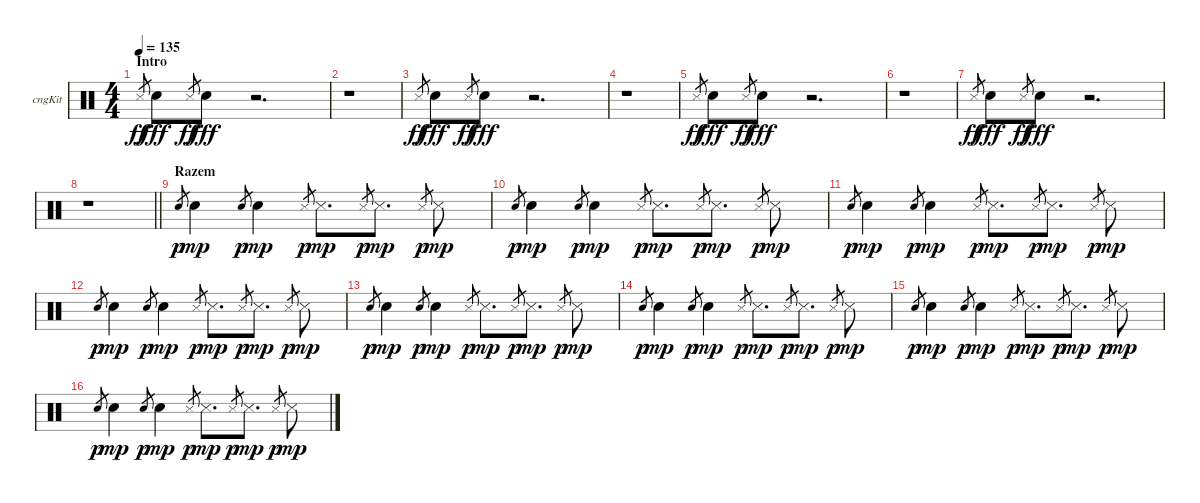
\bracketExtendMode groupsimilarinstruments
\firstSystemTrackNameOrientation horizontal
\otherSystemsTrackNameOrientation horizontal
\track ("Congas" "cngKit") {instrument percussion}
\staff {score}
\articulation defaults
\ts (4 4)
\beaming (8 2 2 2 2)
\section ("" "Intro")
\tempo 135
\clef neutral
\ks c "Snare (side stick) 3".8{gr dy ff} "Snare (hit) 2".8{dy fff} "Snare (side stick) 3".8{gr dy ff} "Snare (hit) 2".8{dy fff}
r.2{d} |
r.1 |
"Snare (side stick) 3".8{gr dy ff} "Snare (hit) 2".8{dy fff} "Snare (side stick) 3".8{gr dy ff} "Snare (hit) 2".8{dy fff} r.2{d} |
r.1 |
"Snare (side stick) 3".8{gr dy ff} "Snare (hit) 2".8{dy fff} "Snare (side stick) 3".8{gr dy ff} "Snare (hit) 2".8{dy fff} r.2{d} |
r.1 |
"Snare (side stick) 3".8{gr dy ff} "Snare (hit) 2".8{dy fff} "Snare (side stick) 3".8{gr dy ff} "Snare (hit) 2".8{dy fff} r.2{d} |
\barLineRight lightlight
r.1 |
\section ("" "Razem")
"Snare (hit) 2".8{gr dy p} "Snare (hit) 2".4{dy mp} "Snare (hit) 2".8{gr dy p} "Snare (hit) 2".4{dy mp} "Snare (side stick) 3".8{gr dy p} "Snare (side stick) 3".8{d dy mp} "Snare (side stick) 3".8{gr dy p} "Snare (side stick) 3".8{d dy mp} "Snare (side stick) 3".8{gr dy p} "Snare (side stick) 3".8{dy mp} |
"Snare (hit) 2".8{gr dy p} "Snare (hit) 2".4{dy mp} "Snare (hit) 2".8{gr dy p} "Snare (hit) 2".4{dy mp} "Snare (side stick) 3".8{gr dy p} "Snare (side stick) 3".8{d dy mp} "Snare (side stick) 3".8{gr dy p} "Snare (side stick) 3".8{d dy mp} "Snare (side stick) 3".8{gr dy p} "Snare (side stick) 3".8{dy mp} |
"Snare (hit) 2".8{gr dy p} "Snare (hit) 2".4{dy mp} "Snare (hit) 2".8{gr dy p} "Snare (hit) 2".4{dy mp} "Snare (side stick) 3".8{gr dy p} "Snare (side stick) 3".8{d dy mp} "Snare (side stick) 3".8{gr dy p} "Snare (side stick) 3".8{d dy mp} "Snare (side stick) 3".8{gr dy p} "Snare (side stick) 3".8{dy mp} |
"Snare (hit) 2".8{gr dy p} "Snare (hit) 2".4{dy mp} "Snare (hit) 2".8{gr dy p} "Snare (hit) 2".4{dy mp} "Snare (side stick) 3".8{gr dy p} "Snare (side stick) 3".8{d dy mp} "Snare (side stick) 3".8{gr dy p} "Snare (side stick) 3".8{d dy mp} "Snare (side stick) 3".8{gr dy p} "Snare (side stick) 3".8{dy mp} |
"Snare (hit) 2".8{gr dy p} "Snare (hit) 2".4{dy mp} "Snare (hit) 2".8{gr dy p} "Snare (hit) 2".4{dy mp} "Snare (side stick) 3".8{gr dy p} "Snare (side stick) 3".8{d dy mp} "Snare (side stick) 3".8{gr dy p} "Snare (side stick) 3".8{d dy mp} "Snare (side stick) 3".8{gr dy p} "Snare (side stick) 3".8{dy mp} |
"Snare (hit) 2".8{gr dy p} "Snare (hit) 2".4{dy mp} "Snare (hit) 2".8{gr dy p} "Snare (hit) 2".4{dy mp} "Snare (side stick) 3".8{gr dy p} "Snare (side stick) 3".8{d dy mp} "Snare (side stick) 3".8{gr dy p} "Snare (side stick) 3".8{d dy mp} "Snare (side stick) 3".8{gr dy p} "Snare (side stick) 3".8{dy mp} |
"Snare (hit) 2".8{gr dy p} "Snare (hit) 2".4{dy mp} "Snare (hit) 2".8{gr dy p} "Snare (hit) 2".4{dy mp} "Snare (side stick) 3".8{gr dy p} "Snare (side stick) 3".8{d dy mp} "Snare (side stick) 3".8{gr dy p} "Snare (side stick) 3".8{d dy mp} "Snare (side stick) 3".8{gr dy p} "Snare (side stick) 3".8{dy mp} |
"Snare (hit) 2".8{gr dy p} "Snare (hit) 2".4{dy mp} "Snare (hit) 2".8{gr dy p} "Snare (hit) 2".4{dy mp} "Snare (side stick) 3".8{gr dy p} "Snare (side stick) 3".8{d dy mp} "Snare (side stick) 3".8{gr dy p} "Snare (side stick) 3".8{d dy mp} "Snare (side stick) 3".8{gr dy p} "Snare (side stick) 3".8{dy mp}
